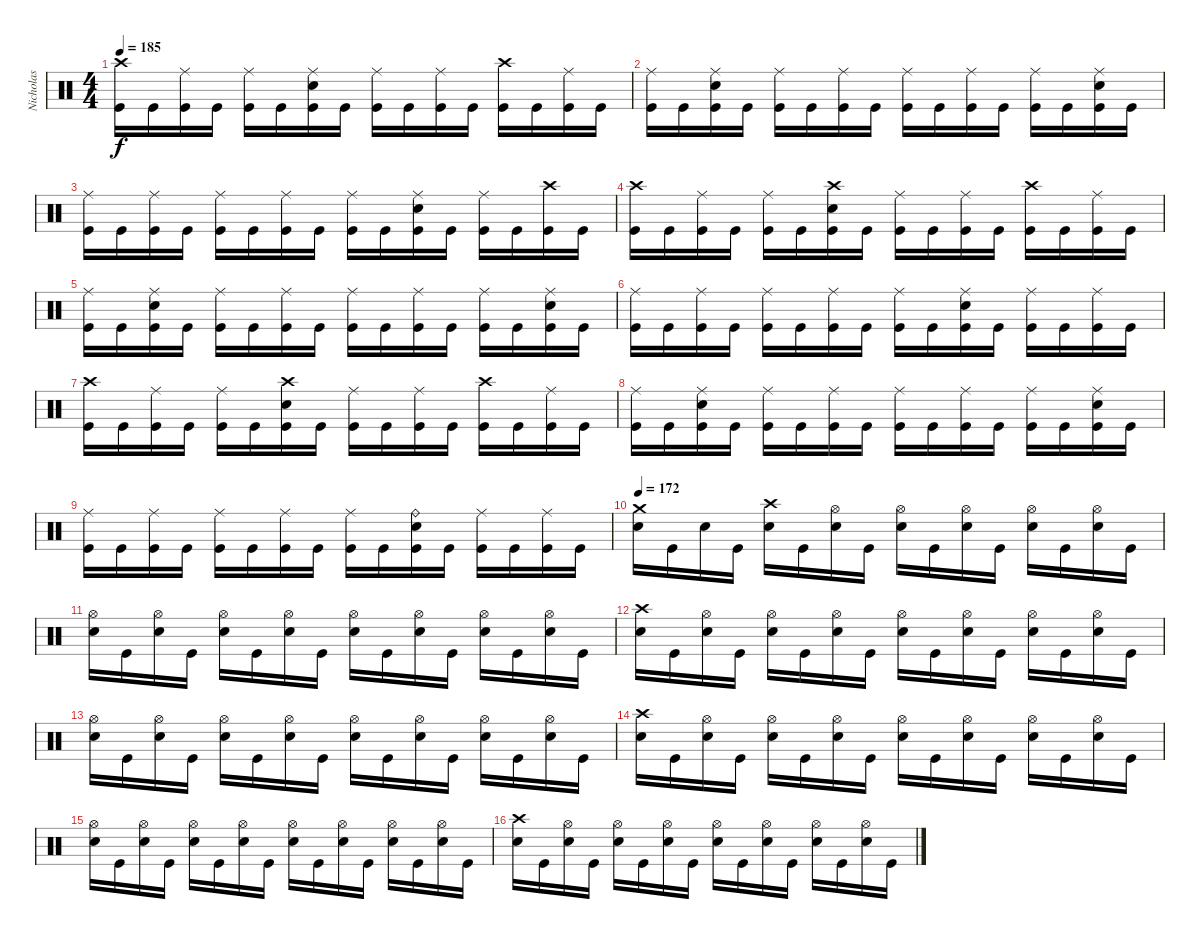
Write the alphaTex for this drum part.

\track ("Nicholas" "Nicholas") {instrument percussion}
\staff {score}
\articulation defaults
\ts (4 4)
\tempo 185
\clef neutral
\ks c
("Crash high (hit)" "Kick (hit)").16{dy f} "Kick (hit)".16 ("Ride (middle)" "Kick (hit)").16 "Kick (hit)".16 ("Ride (middle)" "Kick (hit)").16 "Kick (hit)".16 ("Ride (middle)" "Electric Snare (hit)" "Kick (hit)").16 "Kick (hit)".16 ("Ride (middle)" "Kick (hit)").16 "Kick (hit)".16 ("Ride (middle)" "Kick (hit)").16 "Kick (hit)".16 ("Crash high (hit)" "Kick (hit)").16 "Kick (hit)".16 ("Ride (middle)" "Kick (hit)").16 "Kick (hit)".16 |
("Ride (middle)" "Kick (hit)").16 "Kick (hit)".16 ("Ride (middle)" "Electric Snare (hit)" "Kick (hit)").16 "Kick (hit)".16 ("Ride (middle)" "Kick (hit)").16 "Kick (hit)".16 ("Ride (middle)" "Kick (hit)").16 "Kick (hit)".16 ("Ride (middle)" "Kick (hit)").16 "Kick (hit)".16 ("Ride (middle)" "Kick (hit)").16 "Kick (hit)".16 ("Ride (middle)" "Kick (hit)").16 "Kick (hit)".16 ("Ride (middle)" "Electric Snare (hit)" "Kick (hit)").16 "Kick (hit)".16 |
("Ride (middle)" "Kick (hit)").16 "Kick (hit)".16 ("Ride (middle)" "Kick (hit)").16 "Kick (hit)".16 ("Ride (middle)" "Kick (hit)").16 "Kick (hit)".16 ("Ride (middle)" "Kick (hit)").16 "Kick (hit)".16 ("Ride (middle)" "Kick (hit)").16 "Kick (hit)".16 ("Ride (middle)" "Electric Snare (hit)" "Kick (hit)").16 "Kick (hit)".16 ("Ride (middle)" "Kick (hit)").16 "Kick (hit)".16 ("Crash high (hit)" "Kick (hit)").16 "Kick (hit)".16 |
("Crash high (hit)" "Kick (hit)").16 "Kick (hit)".16 ("Ride (middle)" "Kick (hit)").16 "Kick (hit)".16 ("Ride (middle)" "Kick (hit)").16 "Kick (hit)".16 ("Crash high (hit)" "Electric Snare (hit)" "Kick (hit)").16 "Kick (hit)".16 ("Ride (middle)" "Kick (hit)").16 "Kick (hit)".16 ("Ride (middle)" "Kick (hit)").16 "Kick (hit)".16 ("Crash high (hit)" "Kick (hit)").16 "Kick (hit)".16 ("Ride (middle)" "Kick (hit)").16 "Kick (hit)".16 |
("Ride (middle)" "Kick (hit)").16 "Kick (hit)".16 ("Ride (middle)" "Electric Snare (hit)" "Kick (hit)").16 "Kick (hit)".16 ("Ride (middle)" "Kick (hit)").16 "Kick (hit)".16 ("Ride (middle)" "Kick (hit)").16 "Kick (hit)".16 ("Ride (middle)" "Kick (hit)").16 "Kick (hit)".16 ("Ride (middle)" "Kick (hit)").16 "Kick (hit)".16 ("Ride (middle)" "Kick (hit)").16 "Kick (hit)".16 ("Ride (middle)" "Electric Snare (hit)" "Kick (hit)").16 "Kick (hit)".16 |
("Ride (middle)" "Kick (hit)").16 "Kick (hit)".16 ("Ride (middle)" "Kick (hit)").16 "Kick (hit)".16 ("Ride (middle)" "Kick (hit)").16 "Kick (hit)".16 ("Ride (middle)" "Kick (hit)").16 "Kick (hit)".16 ("Ride (middle)" "Kick (hit)").16 "Kick (hit)".16 ("Ride (middle)" "Electric Snare (hit)" "Kick (hit)").16 "Kick (hit)".16 ("Ride (middle)" "Kick (hit)").16 "Kick (hit)".16 ("Ride (middle)" "Kick (hit)").16 "Kick (hit)".16 |
("Crash high (hit)" "Kick (hit)").16 "Kick (hit)".16 ("Ride (middle)" "Kick (hit)").16 "Kick (hit)".16 ("Ride (middle)" "Kick (hit)").16 "Kick (hit)".16 ("Crash high (hit)" "Electric Snare (hit)" "Kick (hit)").16 "Kick (hit)".16 ("Ride (middle)" "Kick (hit)").16 "Kick (hit)".16 ("Ride (middle)" "Kick (hit)").16 "Kick (hit)".16 ("Crash high (hit)" "Kick (hit)").16 "Kick (hit)".16 ("Ride (middle)" "Kick (hit)").16 "Kick (hit)".16 |
("Ride (middle)" "Kick (hit)").16 "Kick (hit)".16 ("Ride (middle)" "Electric Snare (hit)" "Kick (hit)").16 "Kick (hit)".16 ("Ride (middle)" "Kick (hit)").16 "Kick (hit)".16 ("Ride (middle)" "Kick (hit)").16 "Kick (hit)".16 ("Ride (middle)" "Kick (hit)").16 "Kick (hit)".16 ("Ride (middle)" "Kick (hit)").16 "Kick (hit)".16 ("Ride (middle)" "Kick (hit)").16 "Kick (hit)".16 ("Ride (middle)" "Electric Snare (hit)" "Kick (hit)").16 "Kick (hit)".16 |
("Ride (middle)" "Kick (hit)").16 "Kick (hit)".16 ("Ride (middle)" "Kick (hit)").16 "Kick (hit)".16 ("Ride (middle)" "Kick (hit)").16 "Kick (hit)".16 ("Ride (middle)" "Kick (hit)").16 "Kick (hit)".16 ("Ride (middle)" "Kick (hit)").16 "Kick (hit)".16 ("Ride (bell)" "Electric Snare (hit)" "Kick (hit)").16 "Kick (hit)".16 ("Ride (middle)" "Kick (hit)").16 "Kick (hit)".16 ("Ride (middle)" "Kick (hit)").16 "Kick (hit)".16 |
\tempo 172
("Crash medium (hit)" "Electric Snare (hit)").16 "Kick (hit)".16 "Electric Snare (hit)".16 "Kick (hit)".16 ("Crash high (hit)" "Electric Snare (hit)").16 "Kick (hit)".16 ("Hi-Hat (open)" "Electric Snare (hit)").16 "Kick (hit)".16 ("Hi-Hat (open)" "Electric Snare (hit)").16 "Kick (hit)".16 ("Hi-Hat (open)" "Electric Snare (hit)").16 "Kick (hit)".16 ("Hi-Hat (open)" "Electric Snare (hit)").16 "Kick (hit)".16 ("Hi-Hat (open)" "Electric Snare (hit)").16 "Kick (hit)".16 |
("Hi-Hat (open)" "Electric Snare (hit)").16 "Kick (hit)".16 ("Hi-Hat (open)" "Electric Snare (hit)").16 "Kick (hit)".16 ("Hi-Hat (open)" "Electric Snare (hit)").16 "Kick (hit)".16 ("Hi-Hat (open)" "Electric Snare (hit)").16 "Kick (hit)".16 ("Hi-Hat (open)" "Electric Snare (hit)").16 "Kick (hit)".16 ("Hi-Hat (open)" "Electric Snare (hit)").16 "Kick (hit)".16 ("Hi-Hat (open)" "Electric Snare (hit)").16 "Kick (hit)".16 ("Hi-Hat (open)" "Electric Snare (hit)").16 "Kick (hit)".16 |
("Crash high (hit)" "Electric Snare (hit)").16 "Kick (hit)".16 ("Hi-Hat (open)" "Electric Snare (hit)").16 "Kick (hit)".16 ("Hi-Hat (open)" "Electric Snare (hit)").16 "Kick (hit)".16 ("Hi-Hat (open)" "Electric Snare (hit)").16 "Kick (hit)".16 ("Hi-Hat (open)" "Electric Snare (hit)").16 "Kick (hit)".16 ("Hi-Hat (open)" "Electric Snare (hit)").16 "Kick (hit)".16 ("Hi-Hat (open)" "Electric Snare (hit)").16 "Kick (hit)".16 ("Hi-Hat (open)" "Electric Snare (hit)").16 "Kick (hit)".16 |
("Hi-Hat (open)" "Electric Snare (hit)").16 "Kick (hit)".16 ("Hi-Hat (open)" "Electric Snare (hit)").16 "Kick (hit)".16 ("Hi-Hat (open)" "Electric Snare (hit)").16 "Kick (hit)".16 ("Hi-Hat (open)" "Electric Snare (hit)").16 "Kick (hit)".16 ("Hi-Hat (open)" "Electric Snare (hit)").16 "Kick (hit)".16 ("Hi-Hat (open)" "Electric Snare (hit)").16 "Kick (hit)".16 ("Hi-Hat (open)" "Electric Snare (hit)").16 "Kick (hit)".16 ("Hi-Hat (open)" "Electric Snare (hit)").16 "Kick (hit)".16 |
("Crash high (hit)" "Electric Snare (hit)").16 "Kick (hit)".16 ("Hi-Hat (open)" "Electric Snare (hit)").16 "Kick (hit)".16 ("Hi-Hat (open)" "Electric Snare (hit)").16 "Kick (hit)".16 ("Hi-Hat (open)" "Electric Snare (hit)").16 "Kick (hit)".16 ("Hi-Hat (open)" "Electric Snare (hit)").16 "Kick (hit)".16 ("Hi-Hat (open)" "Electric Snare (hit)").16 "Kick (hit)".16 ("Hi-Hat (open)" "Electric Snare (hit)").16 "Kick (hit)".16 ("Hi-Hat (open)" "Electric Snare (hit)").16 "Kick (hit)".16 |
("Hi-Hat (open)" "Electric Snare (hit)").16 "Kick (hit)".16 ("Hi-Hat (open)" "Electric Snare (hit)").16 "Kick (hit)".16 ("Hi-Hat (open)" "Electric Snare (hit)").16 "Kick (hit)".16 ("Hi-Hat (open)" "Electric Snare (hit)").16 "Kick (hit)".16 ("Hi-Hat (open)" "Electric Snare (hit)").16 "Kick (hit)".16 ("Hi-Hat (open)" "Electric Snare (hit)").16 "Kick (hit)".16 ("Hi-Hat (open)" "Electric Snare (hit)").16 "Kick (hit)".16 ("Hi-Hat (open)" "Electric Snare (hit)").16 "Kick (hit)".16 |
("Crash high (hit)" "Electric Snare (hit)").16 "Kick (hit)".16 ("Hi-Hat (open)" "Electric Snare (hit)").16 "Kick (hit)".16 ("Hi-Hat (open)" "Electric Snare (hit)").16 "Kick (hit)".16 ("Hi-Hat (open)" "Electric Snare (hit)").16 "Kick (hit)".16 ("Hi-Hat (open)" "Electric Snare (hit)").16 "Kick (hit)".16 ("Hi-Hat (open)" "Electric Snare (hit)").16 "Kick (hit)".16 ("Hi-Hat (open)" "Electric Snare (hit)").16 "Kick (hit)".16 ("Hi-Hat (open)" "Electric Snare (hit)").16 "Kick (hit)".16
